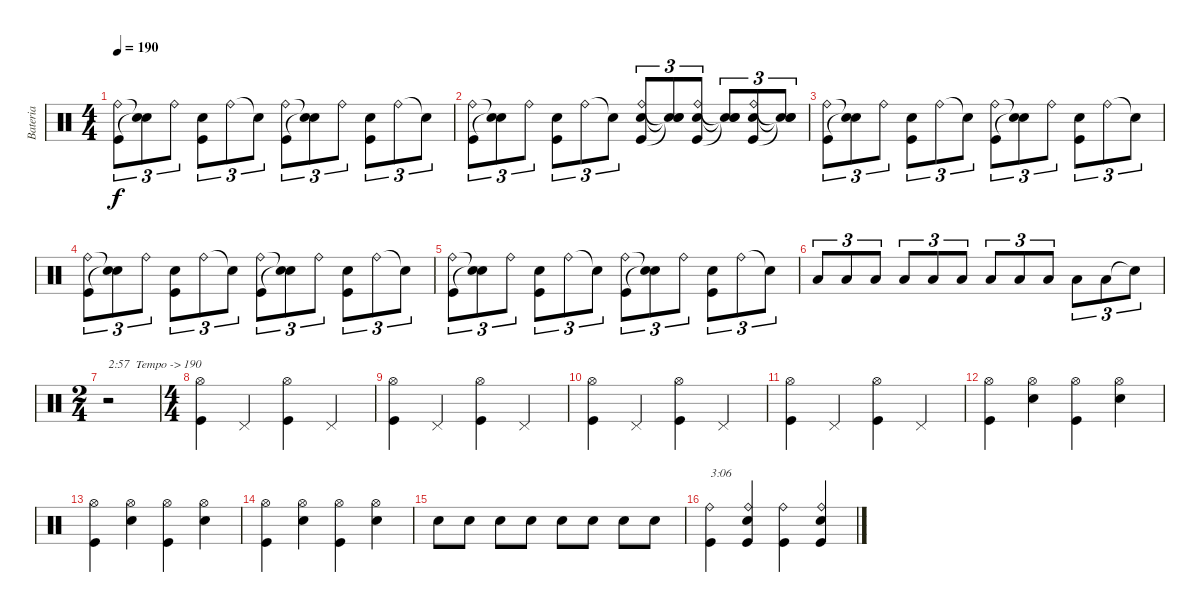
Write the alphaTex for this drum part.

\track ("Bateria" "Bateria") {instrument percussion}
\staff {score}
\articulation defaults
\ts (4 4)
\tempo 190
\clef neutral
\ks c
("Kick (hit)" "Ride (bell)").8{tu (3 2) dy f} ("Snare (hit)"{t} "Snare (hit)"{t}).8{tu (3 2)} "Ride (bell)".8{tu (3 2)} ("Kick (hit)" "Snare (hit) 2").8{tu (3 2)} "Ride (bell)".8{tu (3 2)} "Snare (hit)"{t}.8{tu (3 2)} ("Kick (hit)" "Ride (bell)").8{tu (3 2)} ("Snare (hit)"{t} "Snare (hit)"{t}).8{tu (3 2)} "Ride (bell)".8{tu (3 2)} ("Kick (hit)" "Snare (hit) 2").8{tu (3 2)} "Ride (bell)".8{tu (3 2)} "Snare (hit)"{t}.8{tu (3 2)} |
("Kick (hit)" "Ride (bell)").8{tu (3 2)} ("Snare (hit)"{t} "Snare (hit)"{t}).8{tu (3 2)} "Ride (bell)".8{tu (3 2)} ("Kick (hit)" "Snare (hit) 2").8{tu (3 2)} "Ride (bell)".8{tu (3 2)} "Snare (hit)"{t}.8{tu (3 2)} ("Kick (hit)" "Snare (hit) 2" "Ride (bell)").8{tu (3 2)} ("Snare (hit)"{t} "Snare (hit)"{t} "Snare (hit)"{t}).8{tu (3 2)} ("Kick (hit)" "Snare (hit) 2" "Ride (bell)").8{tu (3 2)} ("Snare (hit)"{t} "Snare (hit)"{t} "Snare (hit)"{t}).8{tu (3 2)} ("Kick (hit)" "Snare (hit) 2" "Ride (bell)").8{tu (3 2)} ("Snare (hit)"{t} "Snare (hit)"{t} "Snare (hit)"{t}).8{tu (3 2)} |
("Kick (hit)" "Ride (bell)").8{tu (3 2)} ("Snare (hit)"{t} "Snare (hit)"{t}).8{tu (3 2)} "Ride (bell)".8{tu (3 2)} ("Kick (hit)" "Snare (hit) 2").8{tu (3 2)} "Ride (bell)".8{tu (3 2)} "Snare (hit)"{t}.8{tu (3 2)} ("Kick (hit)" "Ride (bell)").8{tu (3 2)} ("Snare (hit)"{t} "Snare (hit)"{t}).8{tu (3 2)} "Ride (bell)".8{tu (3 2)} ("Kick (hit)" "Snare (hit) 2").8{tu (3 2)} "Ride (bell)".8{tu (3 2)} "Snare (hit)"{t}.8{tu (3 2)} |
("Kick (hit)" "Ride (bell)").8{tu (3 2)} ("Snare (hit)"{t} "Snare (hit)"{t}).8{tu (3 2)} "Ride (bell)".8{tu (3 2)} ("Kick (hit)" "Snare (hit) 2").8{tu (3 2)} "Ride (bell)".8{tu (3 2)} "Snare (hit)"{t}.8{tu (3 2)} ("Kick (hit)" "Ride (bell)").8{tu (3 2)} ("Snare (hit)"{t} "Snare (hit)"{t}).8{tu (3 2)} "Ride (bell)".8{tu (3 2)} ("Kick (hit)" "Snare (hit) 2").8{tu (3 2)} "Ride (bell)".8{tu (3 2)} "Snare (hit)"{t}.8{tu (3 2)} |
("Kick (hit)" "Ride (bell)").8{tu (3 2)} ("Snare (hit)"{t} "Snare (hit)"{t}).8{tu (3 2)} "Ride (bell)".8{tu (3 2)} ("Kick (hit)" "Snare (hit) 2").8{tu (3 2)} "Ride (bell)".8{tu (3 2)} "Snare (hit)"{t}.8{tu (3 2)} ("Kick (hit)" "Ride (bell)").8{tu (3 2)} ("Snare (hit)"{t} "Snare (hit)"{t}).8{tu (3 2)} "Ride (bell)".8{tu (3 2)} ("Kick (hit)" "Snare (hit) 2").8{tu (3 2)} "Ride (bell)".8{tu (3 2)} "Snare (hit)"{t}.8{tu (3 2)} |
"Low Floor Tom (hit)".8{tu (3 2)} "Low Floor Tom (hit)".8{tu (3 2)} "Low Floor Tom (hit)".8{tu (3 2)} "Low Floor Tom (hit)".8{tu (3 2)} "Low Floor Tom (hit)".8{tu (3 2)} "Low Floor Tom (hit)".8{tu (3 2)} "Low Floor Tom (hit)".8{tu (3 2)} "Low Floor Tom (hit)".8{tu (3 2)} "Low Floor Tom (hit)".8{tu (3 2)} "Low Floor Tom (hit)".8{tu (3 2)} "Low Floor Tom (hit)".8{tu (3 2)} "Snare (hit)"{t}.8{tu (3 2)} |
\ts (2 4)
r.2{txt "2:57  Tempo -> 190"} |
\ts (4 4)
("Kick (hit)" "Hi-Hat (open)").4 "Pedal Hi-Hat (hit)".4 ("Kick (hit)" "Hi-Hat (open)").4 "Pedal Hi-Hat (hit)".4 |
("Kick (hit)" "Hi-Hat (open)").4 "Pedal Hi-Hat (hit)".4 ("Kick (hit)" "Hi-Hat (open)").4 "Pedal Hi-Hat (hit)".4 |
("Kick (hit)" "Hi-Hat (open)").4 "Pedal Hi-Hat (hit)".4 ("Kick (hit)" "Hi-Hat (open)").4 "Pedal Hi-Hat (hit)".4 |
("Kick (hit)" "Hi-Hat (open)").4 "Pedal Hi-Hat (hit)".4 ("Kick (hit)" "Hi-Hat (open)").4 "Pedal Hi-Hat (hit)".4 |
("Kick (hit)" "Hi-Hat (open)").4 ("Snare (hit) 2" "Hi-Hat (open)").4 ("Kick (hit)" "Hi-Hat (open)").4 ("Snare (hit) 2" "Hi-Hat (open)").4 |
("Kick (hit)" "Hi-Hat (open)").4 ("Snare (hit) 2" "Hi-Hat (open)").4 ("Kick (hit)" "Hi-Hat (open)").4 ("Snare (hit) 2" "Hi-Hat (open)").4 |
("Kick (hit)" "Hi-Hat (open)").4 ("Snare (hit) 2" "Hi-Hat (open)").4 ("Kick (hit)" "Hi-Hat (open)").4 ("Snare (hit) 2" "Hi-Hat (open)").4 |
"Snare (hit) 2".8 "Snare (hit) 2".8 "Snare (hit) 2".8 "Snare (hit) 2".8 "Snare (hit) 2".8 "Snare (hit) 2".8 "Snare (hit) 2".8 "Snare (hit) 2".8 |
("Kick (hit)" "Ride (bell)").4{txt "3:06"} ("Kick (hit)" "Snare (hit) 2" "Ride (bell)").4 ("Kick (hit)" "Ride (bell)").4 ("Kick (hit)" "Snare (hit) 2" "Ride (bell)").4
